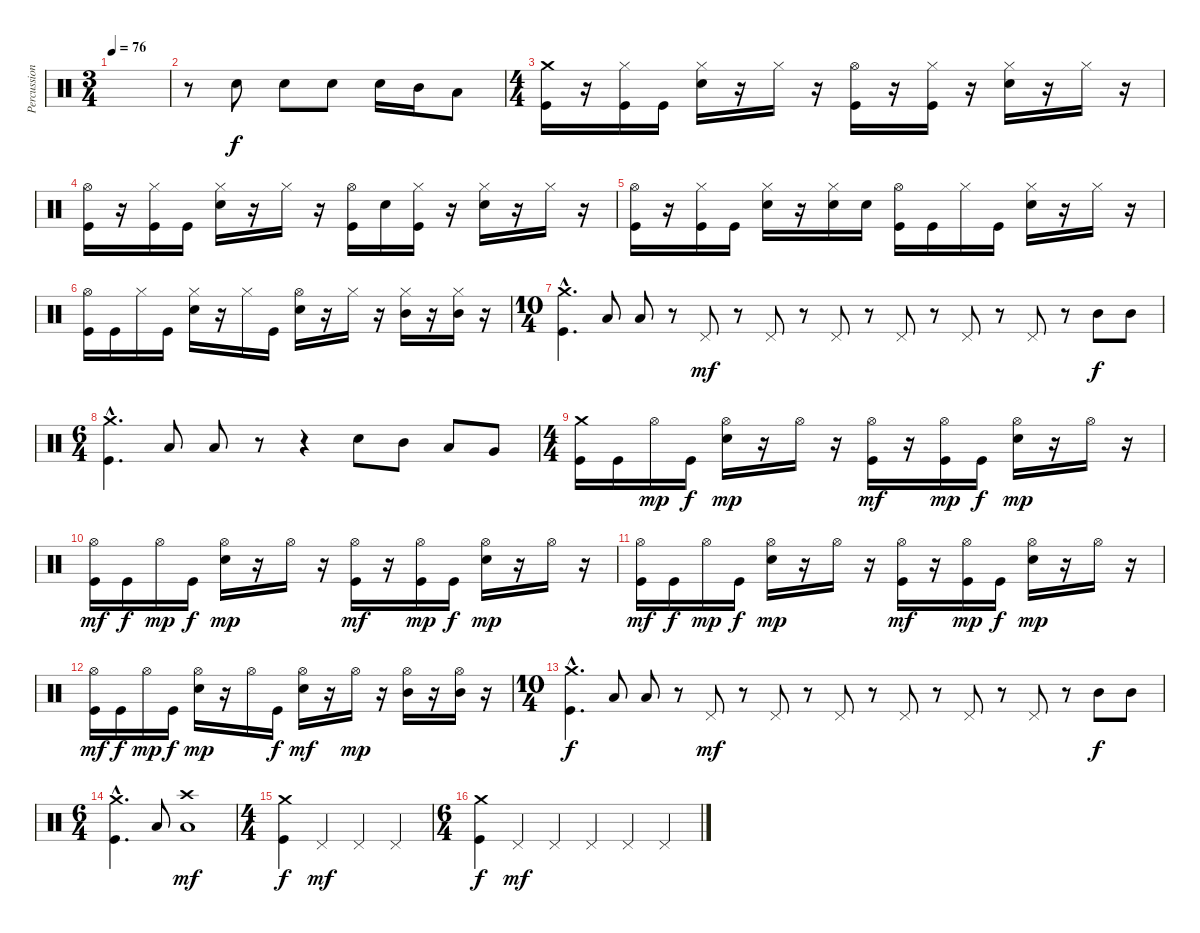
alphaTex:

\track ("Percussion" "Percussion") {instrument percussion}
\staff {score}
\articulation defaults
\ts (3 4)
\tempo 76
\clef neutral
\ks c
|
r.8 "Electric Snare (hit)".8 "Electric Snare (hit)".8 "Electric Snare (hit)".8 "Electric Snare (hit)".16 "Mid Tom (hit)".16 "Low Tom (hit)".8 |
\ts (4 4)
("Crash medium (hit)" "Kick (hit)").16 r.16 ("Hi-Hat (closed)" "Kick (hit)").16 "Kick (hit)".16 ("Hi-Hat (closed)" "Electric Snare (hit)").16 r.16 "Hi-Hat (closed)".16 r.16 ("Hi-Hat (open)" "Kick (hit)").16 r.16 ("Hi-Hat (closed)" "Kick (hit)").16 r.16 ("Hi-Hat (closed)" "Electric Snare (hit)").16 r.16 "Hi-Hat (closed)".16 r.16 |
("Hi-Hat (open)" "Kick (hit)").16 r.16 ("Hi-Hat (closed)" "Kick (hit)").16 "Kick (hit)".16 ("Hi-Hat (closed)" "Electric Snare (hit)").16 r.16 "Hi-Hat (closed)".16 r.16 ("Hi-Hat (open)" "Kick (hit)").16 "Electric Snare (hit)".16 ("Hi-Hat (closed)" "Kick (hit)").16 r.16 ("Hi-Hat (closed)" "Electric Snare (hit)").16 r.16 "Hi-Hat (closed)".16 r.16 |
("Hi-Hat (open)" "Kick (hit)").16 r.16 ("Hi-Hat (closed)" "Kick (hit)").16 "Kick (hit)".16 ("Hi-Hat (closed)" "Electric Snare (hit)").16 r.16 ("Hi-Hat (closed)" "Electric Snare (hit)").16 "Electric Snare (hit)".16 ("Hi-Hat (open)" "Kick (hit)").16 "Kick (hit)".16 "Hi-Hat (closed)".16 "Kick (hit)".16 ("Hi-Hat (closed)" "Electric Snare (hit)").16 r.16 "Hi-Hat (closed)".16 r.16 |
("Hi-Hat (open)" "Kick (hit)").16 "Kick (hit)".16 "Hi-Hat (closed)".16 "Kick (hit)".16 ("Hi-Hat (closed)" "Electric Snare (hit)").16 r.16 "Hi-Hat (closed)".16 "Kick (hit)".16 ("Hi-Hat (open)" "Electric Snare (hit)").16 r.16 "Hi-Hat (closed)".16 r.16 ("Hi-Hat (closed)" "Mid Tom (hit)").16 r.16 ("Hi-Hat (closed)" "Mid Tom (hit)").16 r.16 |
\ts (10 4)
("Crash medium (hit)"{hac} "Kick (hit)"{hac}).4{d} "Low Tom (hit)".8 "Low Tom (hit)".8 r.8 "Pedal Hi-Hat (hit)".8{dy mf} r.8 "Pedal Hi-Hat (hit)".8 r.8 "Pedal Hi-Hat (hit)".8 r.8 "Pedal Hi-Hat (hit)".8 r.8 "Pedal Hi-Hat (hit)".8 r.8 "Pedal Hi-Hat (hit)".8 r.8 "Mid Tom (hit)".8{dy f} "Mid Tom (hit)".8 |
\ts (6 4)
("Crash medium (hit)"{hac} "Kick (hit)"{hac}).4{d} "Low Tom (hit)".8 "Low Tom (hit)".8 r.8 r.4 "Electric Snare (hit)".8 "Mid Tom (hit)".8 "Low Tom (hit)".8 "Very Low Tom (hit)".8 |
\ts (4 4)
("Crash medium (hit)" "Kick (hit)").16 "Kick (hit)".16 "Hi-Hat (open)".16{dy mp} "Kick (hit)".16{dy f} ("Hi-Hat (open)" "Electric Snare (hit)").16{dy mp} r.16 "Hi-Hat (open)".16 r.16 ("Hi-Hat (open)" "Kick (hit)").16{dy mf} r.16 ("Hi-Hat (open)" "Kick (hit)").16{dy mp} "Kick (hit)".16{dy f} ("Hi-Hat (open)" "Electric Snare (hit)").16{dy mp} r.16 "Hi-Hat (open)".16 r.16 |
("Hi-Hat (open)" "Kick (hit)").16{dy mf} "Kick (hit)".16{dy f} "Hi-Hat (open)".16{dy mp} "Kick (hit)".16{dy f} ("Hi-Hat (open)" "Electric Snare (hit)").16{dy mp} r.16 "Hi-Hat (open)".16 r.16 ("Hi-Hat (open)" "Kick (hit)").16{dy mf} r.16 ("Hi-Hat (open)" "Kick (hit)").16{dy mp} "Kick (hit)".16{dy f} ("Hi-Hat (open)" "Electric Snare (hit)").16{dy mp} r.16 "Hi-Hat (open)".16 r.16 |
("Hi-Hat (open)" "Kick (hit)").16{dy mf} "Kick (hit)".16{dy f} "Hi-Hat (open)".16{dy mp} "Kick (hit)".16{dy f} ("Hi-Hat (open)" "Electric Snare (hit)").16{dy mp} r.16 "Hi-Hat (open)".16 r.16 ("Hi-Hat (open)" "Kick (hit)").16{dy mf} r.16 ("Hi-Hat (open)" "Kick (hit)").16{dy mp} "Kick (hit)".16{dy f} ("Hi-Hat (open)" "Electric Snare (hit)").16{dy mp} r.16 "Hi-Hat (open)".16 r.16 |
("Hi-Hat (open)" "Kick (hit)").16{dy mf} "Kick (hit)".16{dy f} "Hi-Hat (open)".16{dy mp} "Kick (hit)".16{dy f} ("Hi-Hat (open)" "Electric Snare (hit)").16{dy mp} r.16 "Hi-Hat (open)".16 "Kick (hit)".16{dy f} ("Hi-Hat (open)" "Electric Snare (hit)").16{dy mf} r.16 "Hi-Hat (open)".16{dy mp} r.16 ("Hi-Hat (open)" "Mid Tom (hit)").16 r.16 ("Hi-Hat (open)" "Mid Tom (hit)").16 r.16 |
\ts (10 4)
("Crash medium (hit)"{hac} "Kick (hit)"{hac}).4{d dy f} "Low Tom (hit)".8 "Low Tom (hit)".8 r.8 "Pedal Hi-Hat (hit)".8{dy mf} r.8 "Pedal Hi-Hat (hit)".8 r.8 "Pedal Hi-Hat (hit)".8 r.8 "Pedal Hi-Hat (hit)".8 r.8 "Pedal Hi-Hat (hit)".8 r.8 "Pedal Hi-Hat (hit)".8 r.8 "Mid Tom (hit)".8{dy f} "Mid Tom (hit)".8 |
\ts (6 4)
("Crash medium (hit)"{hac} "Kick (hit)"{hac}).4{d} "Low Tom (hit)".8 ("Crash high (hit)" "Low Tom (hit)").1{dy mf} |
\ts (4 4)
("Crash medium (hit)" "Kick (hit)").4{dy f} "Pedal Hi-Hat (hit)".4{dy mf} "Pedal Hi-Hat (hit)".4 "Pedal Hi-Hat (hit)".4 |
\ts (6 4)
("Crash medium (hit)" "Kick (hit)").4{dy f} "Pedal Hi-Hat (hit)".4{dy mf} "Pedal Hi-Hat (hit)".4 "Pedal Hi-Hat (hit)".4 "Pedal Hi-Hat (hit)".4 "Pedal Hi-Hat (hit)".4
